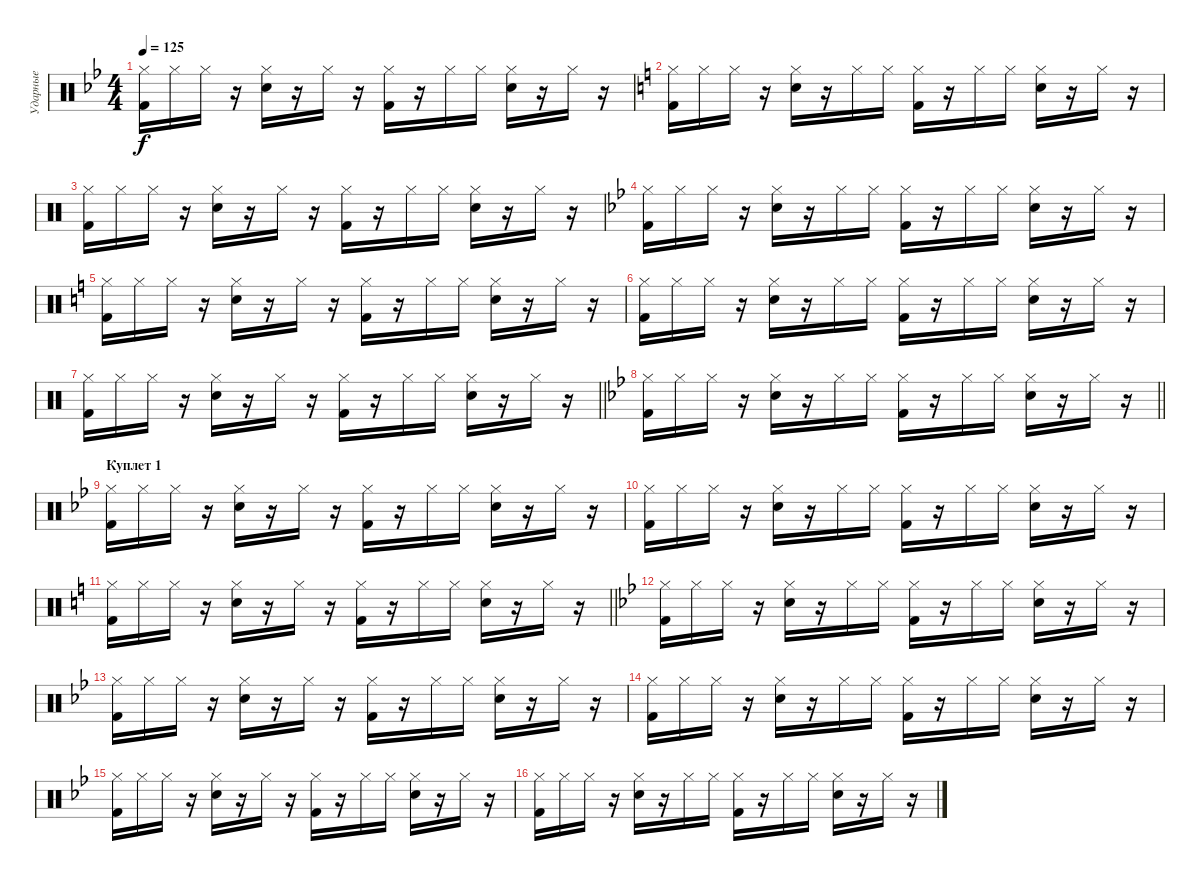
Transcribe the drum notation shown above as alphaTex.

\track ("Ударные" "Ударные") {instrument percussion}
\staff {score}
\articulation defaults
\ts (4 4)
\tempo 125
\clef neutral
\ks bb
("Kick (hit) 2" "Hi-Hat (closed)").16{dy f} "Hi-Hat (closed)".16 "Hi-Hat (closed)".16 r.16 ("Snare (hit) 2" "Hi-Hat (closed)").16 r.16 "Hi-Hat (closed)".16 r.16 ("Kick (hit) 2" "Hi-Hat (closed)").16 r.16 "Hi-Hat (closed)".16 "Hi-Hat (closed)".16 ("Snare (hit) 2" "Hi-Hat (closed)").16 r.16 "Hi-Hat (closed)".16 r.16 |
\ks c
("Kick (hit) 2" "Hi-Hat (closed)").16 "Hi-Hat (closed)".16 "Hi-Hat (closed)".16 r.16 ("Snare (hit) 2" "Hi-Hat (closed)").16 r.16 "Hi-Hat (closed)".16 "Hi-Hat (closed)".16 ("Kick (hit) 2" "Hi-Hat (closed)").16 r.16 "Hi-Hat (closed)".16 "Hi-Hat (closed)".16 ("Snare (hit) 2" "Hi-Hat (closed)").16 r.16 "Hi-Hat (closed)".16 r.16 |
("Kick (hit) 2" "Hi-Hat (closed)").16 "Hi-Hat (closed)".16 "Hi-Hat (closed)".16 r.16 ("Snare (hit) 2" "Hi-Hat (closed)").16 r.16 "Hi-Hat (closed)".16 r.16 ("Kick (hit) 2" "Hi-Hat (closed)").16 r.16 "Hi-Hat (closed)".16 "Hi-Hat (closed)".16 ("Snare (hit) 2" "Hi-Hat (closed)").16 r.16 "Hi-Hat (closed)".16 r.16 |
\ks bb
("Kick (hit) 2" "Hi-Hat (closed)").16 "Hi-Hat (closed)".16 "Hi-Hat (closed)".16 r.16 ("Snare (hit) 2" "Hi-Hat (closed)").16 r.16 "Hi-Hat (closed)".16 "Hi-Hat (closed)".16 ("Kick (hit) 2" "Hi-Hat (closed)").16 r.16 "Hi-Hat (closed)".16 "Hi-Hat (closed)".16 ("Snare (hit) 2" "Hi-Hat (closed)").16 r.16 "Hi-Hat (closed)".16 r.16 |
\ks c
("Kick (hit) 2" "Hi-Hat (closed)").16 "Hi-Hat (closed)".16 "Hi-Hat (closed)".16 r.16 ("Snare (hit) 2" "Hi-Hat (closed)").16 r.16 "Hi-Hat (closed)".16 r.16 ("Kick (hit) 2" "Hi-Hat (closed)").16 r.16 "Hi-Hat (closed)".16 "Hi-Hat (closed)".16 ("Snare (hit) 2" "Hi-Hat (closed)").16 r.16 "Hi-Hat (closed)".16 r.16 |
("Kick (hit) 2" "Hi-Hat (closed)").16 "Hi-Hat (closed)".16 "Hi-Hat (closed)".16 r.16 ("Snare (hit) 2" "Hi-Hat (closed)").16 r.16 "Hi-Hat (closed)".16 "Hi-Hat (closed)".16 ("Kick (hit) 2" "Hi-Hat (closed)").16 r.16 "Hi-Hat (closed)".16 "Hi-Hat (closed)".16 ("Snare (hit) 2" "Hi-Hat (closed)").16 r.16 "Hi-Hat (closed)".16 r.16 |
\barLineRight lightlight
("Kick (hit) 2" "Hi-Hat (closed)").16 "Hi-Hat (closed)".16 "Hi-Hat (closed)".16 r.16 ("Snare (hit) 2" "Hi-Hat (closed)").16 r.16 "Hi-Hat (closed)".16 r.16 ("Kick (hit) 2" "Hi-Hat (closed)").16 r.16 "Hi-Hat (closed)".16 "Hi-Hat (closed)".16 ("Snare (hit) 2" "Hi-Hat (closed)").16 r.16 "Hi-Hat (closed)".16 r.16 |
\barLineRight lightlight
\ks bb
("Kick (hit) 2" "Hi-Hat (closed)").16 "Hi-Hat (closed)".16 "Hi-Hat (closed)".16 r.16 ("Snare (hit) 2" "Hi-Hat (closed)").16 r.16 "Hi-Hat (closed)".16 "Hi-Hat (closed)".16 ("Kick (hit) 2" "Hi-Hat (closed)").16 r.16 "Hi-Hat (closed)".16 "Hi-Hat (closed)".16 ("Snare (hit) 2" "Hi-Hat (closed)").16 r.16 "Hi-Hat (closed)".16 r.16 |
\section ("" "Куплет 1")
("Kick (hit) 2" "Hi-Hat (closed)").16 "Hi-Hat (closed)".16 "Hi-Hat (closed)".16 r.16 ("Snare (hit) 2" "Hi-Hat (closed)").16 r.16 "Hi-Hat (closed)".16 r.16 ("Kick (hit) 2" "Hi-Hat (closed)").16 r.16 "Hi-Hat (closed)".16 "Hi-Hat (closed)".16 ("Snare (hit) 2" "Hi-Hat (closed)").16 r.16 "Hi-Hat (closed)".16 r.16 |
("Kick (hit) 2" "Hi-Hat (closed)").16 "Hi-Hat (closed)".16 "Hi-Hat (closed)".16 r.16 ("Snare (hit) 2" "Hi-Hat (closed)").16 r.16 "Hi-Hat (closed)".16 "Hi-Hat (closed)".16 ("Kick (hit) 2" "Hi-Hat (closed)").16 r.16 "Hi-Hat (closed)".16 "Hi-Hat (closed)".16 ("Snare (hit) 2" "Hi-Hat (closed)").16 r.16 "Hi-Hat (closed)".16 r.16 |
\barLineRight lightlight
\ks c
("Kick (hit) 2" "Hi-Hat (closed)").16 "Hi-Hat (closed)".16 "Hi-Hat (closed)".16 r.16 ("Snare (hit) 2" "Hi-Hat (closed)").16 r.16 "Hi-Hat (closed)".16 r.16 ("Kick (hit) 2" "Hi-Hat (closed)").16 r.16 "Hi-Hat (closed)".16 "Hi-Hat (closed)".16 ("Snare (hit) 2" "Hi-Hat (closed)").16 r.16 "Hi-Hat (closed)".16 r.16 |
\ks bb
("Kick (hit) 2" "Hi-Hat (closed)").16 "Hi-Hat (closed)".16 "Hi-Hat (closed)".16 r.16 ("Snare (hit) 2" "Hi-Hat (closed)").16 r.16 "Hi-Hat (closed)".16 "Hi-Hat (closed)".16 ("Kick (hit) 2" "Hi-Hat (closed)").16 r.16 "Hi-Hat (closed)".16 "Hi-Hat (closed)".16 ("Snare (hit) 2" "Hi-Hat (closed)").16 r.16 "Hi-Hat (closed)".16 r.16 |
("Kick (hit) 2" "Hi-Hat (closed)").16 "Hi-Hat (closed)".16 "Hi-Hat (closed)".16 r.16 ("Snare (hit) 2" "Hi-Hat (closed)").16 r.16 "Hi-Hat (closed)".16 r.16 ("Kick (hit) 2" "Hi-Hat (closed)").16 r.16 "Hi-Hat (closed)".16 "Hi-Hat (closed)".16 ("Snare (hit) 2" "Hi-Hat (closed)").16 r.16 "Hi-Hat (closed)".16 r.16 |
("Kick (hit) 2" "Hi-Hat (closed)").16 "Hi-Hat (closed)".16 "Hi-Hat (closed)".16 r.16 ("Snare (hit) 2" "Hi-Hat (closed)").16 r.16 "Hi-Hat (closed)".16 "Hi-Hat (closed)".16 ("Kick (hit) 2" "Hi-Hat (closed)").16 r.16 "Hi-Hat (closed)".16 "Hi-Hat (closed)".16 ("Snare (hit) 2" "Hi-Hat (closed)").16 r.16 "Hi-Hat (closed)".16 r.16 |
("Kick (hit) 2" "Hi-Hat (closed)").16 "Hi-Hat (closed)".16 "Hi-Hat (closed)".16 r.16 ("Snare (hit) 2" "Hi-Hat (closed)").16 r.16 "Hi-Hat (closed)".16 r.16 ("Kick (hit) 2" "Hi-Hat (closed)").16 r.16 "Hi-Hat (closed)".16 "Hi-Hat (closed)".16 ("Snare (hit) 2" "Hi-Hat (closed)").16 r.16 "Hi-Hat (closed)".16 r.16 |
("Kick (hit) 2" "Hi-Hat (closed)").16 "Hi-Hat (closed)".16 "Hi-Hat (closed)".16 r.16 ("Snare (hit) 2" "Hi-Hat (closed)").16 r.16 "Hi-Hat (closed)".16 "Hi-Hat (closed)".16 ("Kick (hit) 2" "Hi-Hat (closed)").16 r.16 "Hi-Hat (closed)".16 "Hi-Hat (closed)".16 ("Snare (hit) 2" "Hi-Hat (closed)").16 r.16 "Hi-Hat (closed)".16 r.16
